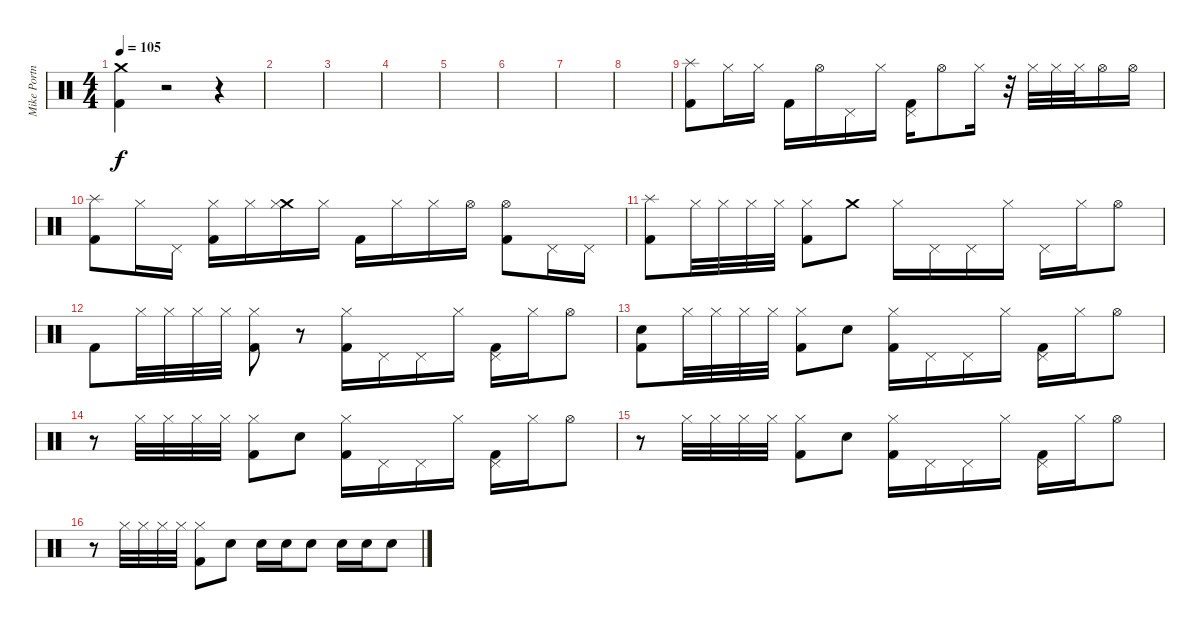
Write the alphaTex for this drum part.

\track ("Mike Portnoy" "Mike Portn") {instrument percussion}
\staff {score}
\articulation defaults
\ts (4 4)
\tempo 105
\clef neutral
\ks c
("Crash medium (hit)" "Kick (hit) 2").4{dy f} r.2 r.4 |
|
|
|
|
|
|
|
("Splash (hit)" "Kick (hit) 2").8 "Hi-Hat (closed)".16 "Hi-Hat (closed)".16 "Kick (hit) 2".16 "Hi-Hat (open)".16 "Pedal Hi-Hat (hit)".16 "Hi-Hat (closed)".16 ("Pedal Hi-Hat (hit)" "Kick (hit) 2").16 "Hi-Hat (open)".8 "Hi-Hat (closed)".16 r.32 "Hi-Hat (closed)".32 "Hi-Hat (closed)".32 "Hi-Hat (closed)".32 "Hi-Hat (open)".16 "Hi-Hat (open)".16 |
("Splash (hit)" "Kick (hit) 2").8 "Hi-Hat (closed)".16 "Pedal Hi-Hat (hit)".16 ("Hi-Hat (closed)" "Kick (hit) 2").16 "Hi-Hat (closed)".16 ("Crash medium (hit)" "Hi-Hat (closed)").16 "Hi-Hat (closed)".16 "Kick (hit) 2".16 "Hi-Hat (closed)".16 "Hi-Hat (closed)".16 "Hi-Hat (open)".16 ("Hi-Hat (open)" "Kick (hit) 2").8 "Pedal Hi-Hat (hit)".16 "Pedal Hi-Hat (hit)".16 |
("Splash (hit)" "Kick (hit) 2").8 "Hi-Hat (closed)".32 "Hi-Hat (closed)".32 "Hi-Hat (closed)".32 "Hi-Hat (closed)".32 ("Hi-Hat (closed)" "Kick (hit) 2").8 "Crash medium (hit)".8 "Hi-Hat (closed)".16 "Pedal Hi-Hat (hit)".16 "Pedal Hi-Hat (hit)".16 "Hi-Hat (closed)".16 "Pedal Hi-Hat (hit)".16 "Hi-Hat (closed)".16 "Hi-Hat (open)".8 |
"Kick (hit) 2".8 "Hi-Hat (closed)".32 "Hi-Hat (closed)".32 "Hi-Hat (closed)".32 "Hi-Hat (closed)".32 ("Hi-Hat (closed)" "Kick (hit) 2").8 r.8 ("Hi-Hat (closed)" "Kick (hit) 2").16 "Pedal Hi-Hat (hit)".16 "Pedal Hi-Hat (hit)".16 "Hi-Hat (closed)".16 ("Pedal Hi-Hat (hit)" "Kick (hit) 2").16 "Hi-Hat (closed)".16 "Hi-Hat (open)".8 |
("Electric Snare (hit)" "Kick (hit) 2").8 "Hi-Hat (closed)".32 "Hi-Hat (closed)".32 "Hi-Hat (closed)".32 "Hi-Hat (closed)".32 ("Hi-Hat (closed)" "Kick (hit) 2").8 "Electric Snare (hit)".8 ("Hi-Hat (closed)" "Kick (hit) 2").16 "Pedal Hi-Hat (hit)".16 "Pedal Hi-Hat (hit)".16 "Hi-Hat (closed)".16 ("Pedal Hi-Hat (hit)" "Kick (hit) 2").16 "Hi-Hat (closed)".16 "Hi-Hat (open)".8 |
r.8 "Hi-Hat (closed)".32 "Hi-Hat (closed)".32 "Hi-Hat (closed)".32 "Hi-Hat (closed)".32 ("Hi-Hat (closed)" "Kick (hit) 2").8 "Electric Snare (hit)".8 ("Hi-Hat (closed)" "Kick (hit) 2").16 "Pedal Hi-Hat (hit)".16 "Pedal Hi-Hat (hit)".16 "Hi-Hat (closed)".16 ("Pedal Hi-Hat (hit)" "Kick (hit) 2").16 "Hi-Hat (closed)".16 "Hi-Hat (open)".8 |
r.8 "Hi-Hat (closed)".32 "Hi-Hat (closed)".32 "Hi-Hat (closed)".32 "Hi-Hat (closed)".32 ("Hi-Hat (closed)" "Kick (hit) 2").8 "Electric Snare (hit)".8 ("Hi-Hat (closed)" "Kick (hit) 2").16 "Pedal Hi-Hat (hit)".16 "Pedal Hi-Hat (hit)".16 "Hi-Hat (closed)".16 ("Pedal Hi-Hat (hit)" "Kick (hit) 2").16 "Hi-Hat (closed)".16 "Hi-Hat (open)".8 |
r.8 "Hi-Hat (closed)".32 "Hi-Hat (closed)".32 "Hi-Hat (closed)".32 "Hi-Hat (closed)".32 ("Hi-Hat (closed)" "Kick (hit) 2").8 "Electric Snare (hit)".8 "Electric Snare (hit)".16 "Electric Snare (hit)".16 "Electric Snare (hit)".8 "Electric Snare (hit)".16 "Electric Snare (hit)".16 "Electric Snare (hit)".8
